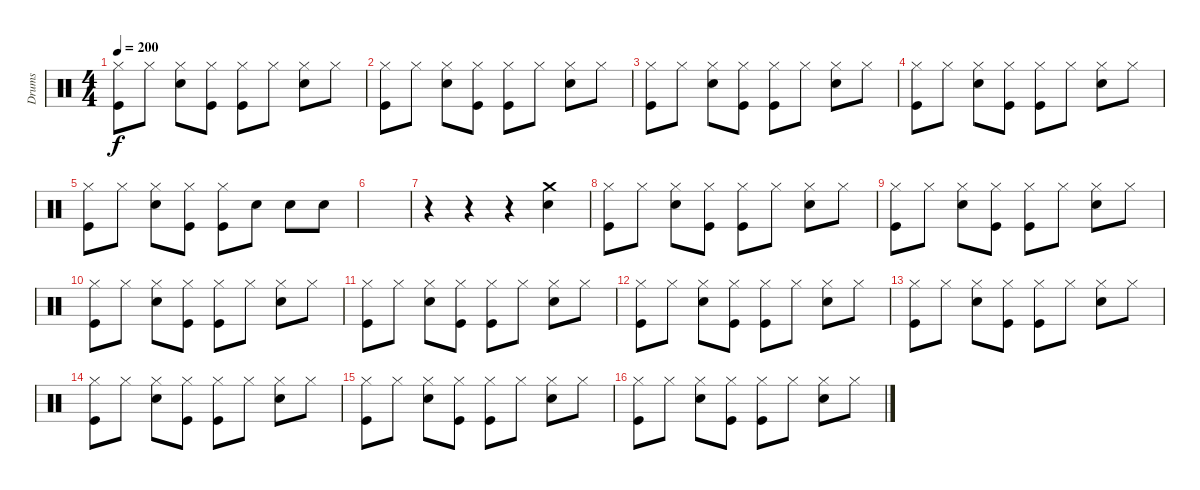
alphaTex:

\track ("Drums" "Drums") {instrument percussion}
\staff {score}
\articulation defaults
\ts (4 4)
\tempo 200
\clef neutral
\ks c
("Hi-Hat (closed)" "Kick (hit)").8{dy f} "Hi-Hat (closed)".8 ("Hi-Hat (closed)" "Snare (hit) 2").8 ("Hi-Hat (closed)" "Kick (hit)").8 ("Hi-Hat (closed)" "Kick (hit)").8 "Hi-Hat (closed)".8 ("Hi-Hat (closed)" "Snare (hit) 2").8 "Hi-Hat (closed)".8 |
("Hi-Hat (closed)" "Kick (hit)").8 "Hi-Hat (closed)".8 ("Hi-Hat (closed)" "Snare (hit) 2").8 ("Hi-Hat (closed)" "Kick (hit)").8 ("Hi-Hat (closed)" "Kick (hit)").8 "Hi-Hat (closed)".8 ("Hi-Hat (closed)" "Snare (hit) 2").8 "Hi-Hat (closed)".8 |
("Hi-Hat (closed)" "Kick (hit)").8 "Hi-Hat (closed)".8 ("Hi-Hat (closed)" "Snare (hit) 2").8 ("Hi-Hat (closed)" "Kick (hit)").8 ("Hi-Hat (closed)" "Kick (hit)").8 "Hi-Hat (closed)".8 ("Hi-Hat (closed)" "Snare (hit) 2").8 "Hi-Hat (closed)".8 |
("Hi-Hat (closed)" "Kick (hit)").8 "Hi-Hat (closed)".8 ("Hi-Hat (closed)" "Snare (hit) 2").8 ("Hi-Hat (closed)" "Kick (hit)").8 ("Hi-Hat (closed)" "Kick (hit)").8 "Hi-Hat (closed)".8 ("Hi-Hat (closed)" "Snare (hit) 2").8 "Hi-Hat (closed)".8 |
("Hi-Hat (closed)" "Kick (hit)").8 "Hi-Hat (closed)".8 ("Hi-Hat (closed)" "Snare (hit) 2").8 ("Hi-Hat (closed)" "Kick (hit)").8 ("Hi-Hat (closed)" "Kick (hit)").8 "Snare (hit) 2".8 "Snare (hit) 2".8 "Snare (hit) 2".8 |
|
r.4 r.4 r.4 ("Crash medium (hit)" "Snare (hit) 2").4 |
("Hi-Hat (closed)" "Kick (hit)").8 "Hi-Hat (closed)".8 ("Hi-Hat (closed)" "Snare (hit) 2").8 ("Hi-Hat (closed)" "Kick (hit)").8 ("Hi-Hat (closed)" "Kick (hit)").8 "Hi-Hat (closed)".8 ("Hi-Hat (closed)" "Snare (hit) 2").8 "Hi-Hat (closed)".8 |
("Hi-Hat (closed)" "Kick (hit)").8 "Hi-Hat (closed)".8 ("Hi-Hat (closed)" "Snare (hit) 2").8 ("Hi-Hat (closed)" "Kick (hit)").8 ("Hi-Hat (closed)" "Kick (hit)").8 "Hi-Hat (closed)".8 ("Hi-Hat (closed)" "Snare (hit) 2").8 "Hi-Hat (closed)".8 |
("Hi-Hat (closed)" "Kick (hit)").8 "Hi-Hat (closed)".8 ("Hi-Hat (closed)" "Snare (hit) 2").8 ("Hi-Hat (closed)" "Kick (hit)").8 ("Hi-Hat (closed)" "Kick (hit)").8 "Hi-Hat (closed)".8 ("Hi-Hat (closed)" "Snare (hit) 2").8 "Hi-Hat (closed)".8 |
("Hi-Hat (closed)" "Kick (hit)").8 "Hi-Hat (closed)".8 ("Hi-Hat (closed)" "Snare (hit) 2").8 ("Hi-Hat (closed)" "Kick (hit)").8 ("Hi-Hat (closed)" "Kick (hit)").8 "Hi-Hat (closed)".8 ("Hi-Hat (closed)" "Snare (hit) 2").8 "Hi-Hat (closed)".8 |
("Hi-Hat (closed)" "Kick (hit)").8 "Hi-Hat (closed)".8 ("Hi-Hat (closed)" "Snare (hit) 2").8 ("Hi-Hat (closed)" "Kick (hit)").8 ("Hi-Hat (closed)" "Kick (hit)").8 "Hi-Hat (closed)".8 ("Hi-Hat (closed)" "Snare (hit) 2").8 "Hi-Hat (closed)".8 |
("Hi-Hat (closed)" "Kick (hit)").8 "Hi-Hat (closed)".8 ("Hi-Hat (closed)" "Snare (hit) 2").8 ("Hi-Hat (closed)" "Kick (hit)").8 ("Hi-Hat (closed)" "Kick (hit)").8 "Hi-Hat (closed)".8 ("Hi-Hat (closed)" "Snare (hit) 2").8 "Hi-Hat (closed)".8 |
("Hi-Hat (closed)" "Kick (hit)").8 "Hi-Hat (closed)".8 ("Hi-Hat (closed)" "Snare (hit) 2").8 ("Hi-Hat (closed)" "Kick (hit)").8 ("Hi-Hat (closed)" "Kick (hit)").8 "Hi-Hat (closed)".8 ("Hi-Hat (closed)" "Snare (hit) 2").8 "Hi-Hat (closed)".8 |
("Hi-Hat (closed)" "Kick (hit)").8 "Hi-Hat (closed)".8 ("Hi-Hat (closed)" "Snare (hit) 2").8 ("Hi-Hat (closed)" "Kick (hit)").8 ("Hi-Hat (closed)" "Kick (hit)").8 "Hi-Hat (closed)".8 ("Hi-Hat (closed)" "Snare (hit) 2").8 "Hi-Hat (closed)".8 |
("Hi-Hat (closed)" "Kick (hit)").8 "Hi-Hat (closed)".8 ("Hi-Hat (closed)" "Snare (hit) 2").8 ("Hi-Hat (closed)" "Kick (hit)").8 ("Hi-Hat (closed)" "Kick (hit)").8 "Hi-Hat (closed)".8 ("Hi-Hat (closed)" "Snare (hit) 2").8 "Hi-Hat (closed)".8
